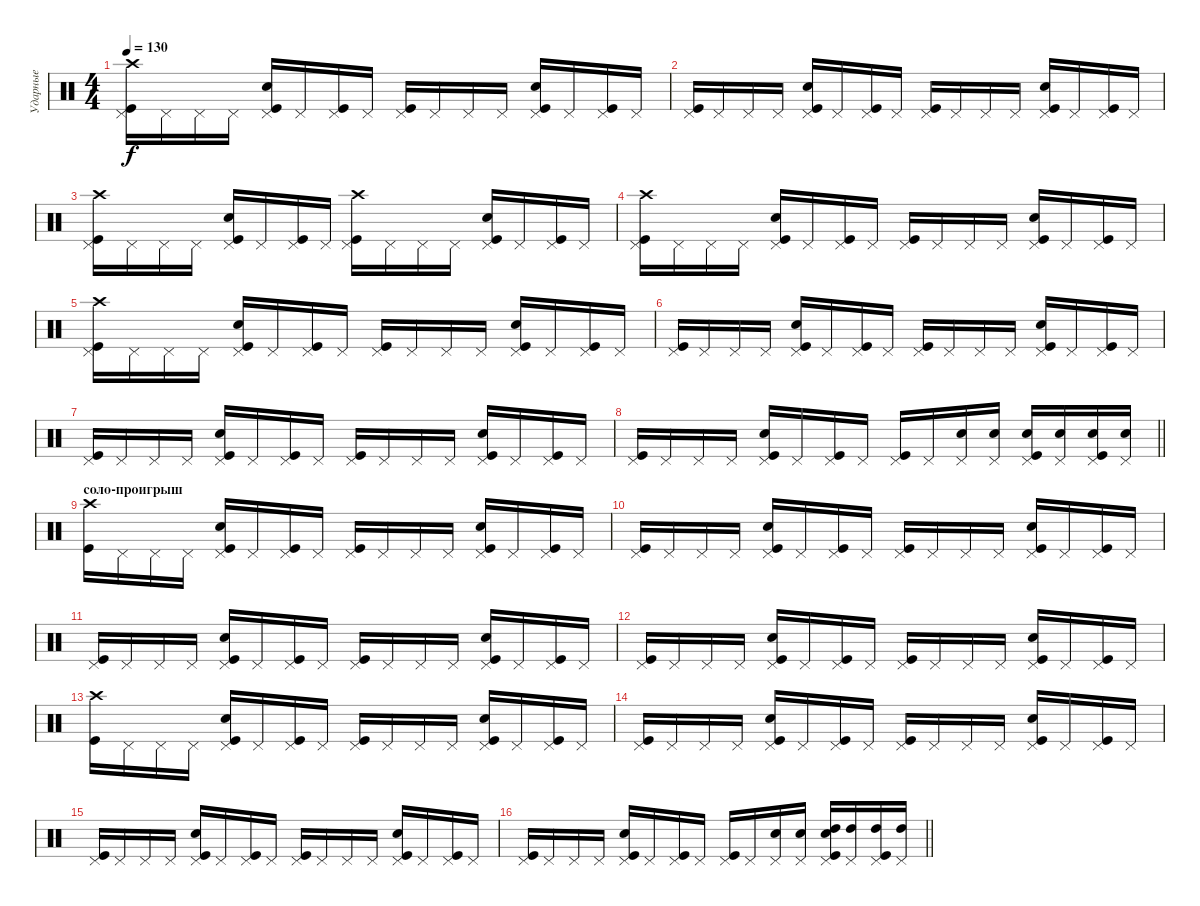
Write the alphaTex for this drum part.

\track ("Ударные" "Ударные") {instrument percussion}
\staff {score}
\articulation defaults
\ts (4 4)
\tempo 130
\clef neutral
\ks c
("Pedal Hi-Hat (hit)" "Kick (hit)" "Crash high (hit)").16{dy f} "Pedal Hi-Hat (hit)".16 "Pedal Hi-Hat (hit)".16 "Pedal Hi-Hat (hit)".16 ("Pedal Hi-Hat (hit)" "Kick (hit)" "Snare (hit) 2").16 "Pedal Hi-Hat (hit)".16 ("Pedal Hi-Hat (hit)" "Kick (hit)").16 "Pedal Hi-Hat (hit)".16 ("Pedal Hi-Hat (hit)" "Kick (hit)").16 "Pedal Hi-Hat (hit)".16 "Pedal Hi-Hat (hit)".16 "Pedal Hi-Hat (hit)".16 ("Pedal Hi-Hat (hit)" "Kick (hit)" "Snare (hit) 2").16 "Pedal Hi-Hat (hit)".16 ("Pedal Hi-Hat (hit)" "Kick (hit)").16 "Pedal Hi-Hat (hit)".16 |
("Pedal Hi-Hat (hit)" "Kick (hit)").16 "Pedal Hi-Hat (hit)".16 "Pedal Hi-Hat (hit)".16 "Pedal Hi-Hat (hit)".16 ("Pedal Hi-Hat (hit)" "Kick (hit)" "Snare (hit) 2").16 "Pedal Hi-Hat (hit)".16 ("Pedal Hi-Hat (hit)" "Kick (hit)").16 "Pedal Hi-Hat (hit)".16 ("Pedal Hi-Hat (hit)" "Kick (hit)").16 "Pedal Hi-Hat (hit)".16 "Pedal Hi-Hat (hit)".16 "Pedal Hi-Hat (hit)".16 ("Pedal Hi-Hat (hit)" "Kick (hit)" "Snare (hit) 2").16 "Pedal Hi-Hat (hit)".16 ("Pedal Hi-Hat (hit)" "Kick (hit)").16 "Pedal Hi-Hat (hit)".16 |
("Pedal Hi-Hat (hit)" "Kick (hit)" "Crash high (hit)").16 "Pedal Hi-Hat (hit)".16 "Pedal Hi-Hat (hit)".16 "Pedal Hi-Hat (hit)".16 ("Pedal Hi-Hat (hit)" "Kick (hit)" "Snare (hit) 2").16 "Pedal Hi-Hat (hit)".16 ("Pedal Hi-Hat (hit)" "Kick (hit)").16 "Pedal Hi-Hat (hit)".16 ("Pedal Hi-Hat (hit)" "Kick (hit)" "Crash high (hit)").16 "Pedal Hi-Hat (hit)".16 "Pedal Hi-Hat (hit)".16 "Pedal Hi-Hat (hit)".16 ("Pedal Hi-Hat (hit)" "Kick (hit)" "Snare (hit) 2").16 "Pedal Hi-Hat (hit)".16 ("Pedal Hi-Hat (hit)" "Kick (hit)").16 "Pedal Hi-Hat (hit)".16 |
("Pedal Hi-Hat (hit)" "Kick (hit)" "Crash high (hit)").16 "Pedal Hi-Hat (hit)".16 "Pedal Hi-Hat (hit)".16 "Pedal Hi-Hat (hit)".16 ("Pedal Hi-Hat (hit)" "Kick (hit)" "Snare (hit) 2").16 "Pedal Hi-Hat (hit)".16 ("Pedal Hi-Hat (hit)" "Kick (hit)").16 "Pedal Hi-Hat (hit)".16 ("Pedal Hi-Hat (hit)" "Kick (hit)").16 "Pedal Hi-Hat (hit)".16 "Pedal Hi-Hat (hit)".16 "Pedal Hi-Hat (hit)".16 ("Pedal Hi-Hat (hit)" "Kick (hit)" "Snare (hit) 2").16 "Pedal Hi-Hat (hit)".16 ("Pedal Hi-Hat (hit)" "Kick (hit)").16 "Pedal Hi-Hat (hit)".16 |
("Pedal Hi-Hat (hit)" "Kick (hit)" "Crash high (hit)").16 "Pedal Hi-Hat (hit)".16 "Pedal Hi-Hat (hit)".16 "Pedal Hi-Hat (hit)".16 ("Pedal Hi-Hat (hit)" "Kick (hit)" "Snare (hit) 2").16 "Pedal Hi-Hat (hit)".16 ("Pedal Hi-Hat (hit)" "Kick (hit)").16 "Pedal Hi-Hat (hit)".16 ("Pedal Hi-Hat (hit)" "Kick (hit)").16 "Pedal Hi-Hat (hit)".16 "Pedal Hi-Hat (hit)".16 "Pedal Hi-Hat (hit)".16 ("Pedal Hi-Hat (hit)" "Kick (hit)" "Snare (hit) 2").16 "Pedal Hi-Hat (hit)".16 ("Pedal Hi-Hat (hit)" "Kick (hit)").16 "Pedal Hi-Hat (hit)".16 |
("Pedal Hi-Hat (hit)" "Kick (hit)").16 "Pedal Hi-Hat (hit)".16 "Pedal Hi-Hat (hit)".16 "Pedal Hi-Hat (hit)".16 ("Pedal Hi-Hat (hit)" "Kick (hit)" "Snare (hit) 2").16 "Pedal Hi-Hat (hit)".16 ("Pedal Hi-Hat (hit)" "Kick (hit)").16 "Pedal Hi-Hat (hit)".16 ("Pedal Hi-Hat (hit)" "Kick (hit)").16 "Pedal Hi-Hat (hit)".16 "Pedal Hi-Hat (hit)".16 "Pedal Hi-Hat (hit)".16 ("Pedal Hi-Hat (hit)" "Kick (hit)" "Snare (hit) 2").16 "Pedal Hi-Hat (hit)".16 ("Pedal Hi-Hat (hit)" "Kick (hit)").16 "Pedal Hi-Hat (hit)".16 |
("Pedal Hi-Hat (hit)" "Kick (hit)").16 "Pedal Hi-Hat (hit)".16 "Pedal Hi-Hat (hit)".16 "Pedal Hi-Hat (hit)".16 ("Pedal Hi-Hat (hit)" "Kick (hit)" "Snare (hit) 2").16 "Pedal Hi-Hat (hit)".16 ("Pedal Hi-Hat (hit)" "Kick (hit)").16 "Pedal Hi-Hat (hit)".16 ("Pedal Hi-Hat (hit)" "Kick (hit)").16 "Pedal Hi-Hat (hit)".16 "Pedal Hi-Hat (hit)".16 "Pedal Hi-Hat (hit)".16 ("Pedal Hi-Hat (hit)" "Kick (hit)" "Snare (hit) 2").16 "Pedal Hi-Hat (hit)".16 ("Pedal Hi-Hat (hit)" "Kick (hit)").16 "Pedal Hi-Hat (hit)".16 |
\barLineRight lightlight
("Pedal Hi-Hat (hit)" "Kick (hit)").16 "Pedal Hi-Hat (hit)".16 "Pedal Hi-Hat (hit)".16 "Pedal Hi-Hat (hit)".16 ("Pedal Hi-Hat (hit)" "Kick (hit)" "Snare (hit) 2").16 "Pedal Hi-Hat (hit)".16 ("Pedal Hi-Hat (hit)" "Kick (hit)").16 "Pedal Hi-Hat (hit)".16 ("Pedal Hi-Hat (hit)" "Kick (hit)").16 "Pedal Hi-Hat (hit)".16 ("Pedal Hi-Hat (hit)" "Snare (hit) 2").16 ("Pedal Hi-Hat (hit)" "Snare (hit) 2").16 ("Pedal Hi-Hat (hit)" "Kick (hit)" "Snare (hit) 2").16 ("Pedal Hi-Hat (hit)" "Snare (hit) 2").16 ("Pedal Hi-Hat (hit)" "Kick (hit)" "Snare (hit) 2").16 ("Pedal Hi-Hat (hit)" "Snare (hit) 2").16 |
\section ("" "соло-проигрыш")
("Crash high (hit)" "Kick (hit)").16 "Pedal Hi-Hat (hit)".16 "Pedal Hi-Hat (hit)".16 "Pedal Hi-Hat (hit)".16 ("Pedal Hi-Hat (hit)" "Kick (hit)" "Snare (hit) 2").16 "Pedal Hi-Hat (hit)".16 ("Pedal Hi-Hat (hit)" "Kick (hit)").16 "Pedal Hi-Hat (hit)".16 ("Pedal Hi-Hat (hit)" "Kick (hit)").16 "Pedal Hi-Hat (hit)".16 "Pedal Hi-Hat (hit)".16 "Pedal Hi-Hat (hit)".16 ("Pedal Hi-Hat (hit)" "Kick (hit)" "Snare (hit) 2").16 "Pedal Hi-Hat (hit)".16 ("Pedal Hi-Hat (hit)" "Kick (hit)").16 "Pedal Hi-Hat (hit)".16 |
("Pedal Hi-Hat (hit)" "Kick (hit)").16 "Pedal Hi-Hat (hit)".16 "Pedal Hi-Hat (hit)".16 "Pedal Hi-Hat (hit)".16 ("Pedal Hi-Hat (hit)" "Kick (hit)" "Snare (hit) 2").16 "Pedal Hi-Hat (hit)".16 ("Pedal Hi-Hat (hit)" "Kick (hit)").16 "Pedal Hi-Hat (hit)".16 ("Pedal Hi-Hat (hit)" "Kick (hit)").16 "Pedal Hi-Hat (hit)".16 "Pedal Hi-Hat (hit)".16 "Pedal Hi-Hat (hit)".16 ("Pedal Hi-Hat (hit)" "Kick (hit)" "Snare (hit) 2").16 "Pedal Hi-Hat (hit)".16 ("Pedal Hi-Hat (hit)" "Kick (hit)").16 "Pedal Hi-Hat (hit)".16 |
("Pedal Hi-Hat (hit)" "Kick (hit)").16 "Pedal Hi-Hat (hit)".16 "Pedal Hi-Hat (hit)".16 "Pedal Hi-Hat (hit)".16 ("Pedal Hi-Hat (hit)" "Kick (hit)" "Snare (hit) 2").16 "Pedal Hi-Hat (hit)".16 ("Pedal Hi-Hat (hit)" "Kick (hit)").16 "Pedal Hi-Hat (hit)".16 ("Pedal Hi-Hat (hit)" "Kick (hit)").16 "Pedal Hi-Hat (hit)".16 "Pedal Hi-Hat (hit)".16 "Pedal Hi-Hat (hit)".16 ("Pedal Hi-Hat (hit)" "Kick (hit)" "Snare (hit) 2").16 "Pedal Hi-Hat (hit)".16 ("Pedal Hi-Hat (hit)" "Kick (hit)").16 "Pedal Hi-Hat (hit)".16 |
("Pedal Hi-Hat (hit)" "Kick (hit)").16 "Pedal Hi-Hat (hit)".16 "Pedal Hi-Hat (hit)".16 "Pedal Hi-Hat (hit)".16 ("Pedal Hi-Hat (hit)" "Kick (hit)" "Snare (hit) 2").16 "Pedal Hi-Hat (hit)".16 ("Pedal Hi-Hat (hit)" "Kick (hit)").16 "Pedal Hi-Hat (hit)".16 ("Pedal Hi-Hat (hit)" "Kick (hit)").16 "Pedal Hi-Hat (hit)".16 "Pedal Hi-Hat (hit)".16 "Pedal Hi-Hat (hit)".16 ("Pedal Hi-Hat (hit)" "Kick (hit)" "Snare (hit) 2").16 "Pedal Hi-Hat (hit)".16 ("Pedal Hi-Hat (hit)" "Kick (hit)").16 "Pedal Hi-Hat (hit)".16 |
("Crash high (hit)" "Kick (hit)").16 "Pedal Hi-Hat (hit)".16 "Pedal Hi-Hat (hit)".16 "Pedal Hi-Hat (hit)".16 ("Pedal Hi-Hat (hit)" "Kick (hit)" "Snare (hit) 2").16 "Pedal Hi-Hat (hit)".16 ("Pedal Hi-Hat (hit)" "Kick (hit)").16 "Pedal Hi-Hat (hit)".16 ("Pedal Hi-Hat (hit)" "Kick (hit)").16 "Pedal Hi-Hat (hit)".16 "Pedal Hi-Hat (hit)".16 "Pedal Hi-Hat (hit)".16 ("Pedal Hi-Hat (hit)" "Kick (hit)" "Snare (hit) 2").16 "Pedal Hi-Hat (hit)".16 ("Pedal Hi-Hat (hit)" "Kick (hit)").16 "Pedal Hi-Hat (hit)".16 |
("Pedal Hi-Hat (hit)" "Kick (hit)").16 "Pedal Hi-Hat (hit)".16 "Pedal Hi-Hat (hit)".16 "Pedal Hi-Hat (hit)".16 ("Pedal Hi-Hat (hit)" "Kick (hit)" "Snare (hit) 2").16 "Pedal Hi-Hat (hit)".16 ("Pedal Hi-Hat (hit)" "Kick (hit)").16 "Pedal Hi-Hat (hit)".16 ("Pedal Hi-Hat (hit)" "Kick (hit)").16 "Pedal Hi-Hat (hit)".16 "Pedal Hi-Hat (hit)".16 "Pedal Hi-Hat (hit)".16 ("Pedal Hi-Hat (hit)" "Kick (hit)" "Snare (hit) 2").16 "Pedal Hi-Hat (hit)".16 ("Pedal Hi-Hat (hit)" "Kick (hit)").16 "Pedal Hi-Hat (hit)".16 |
("Pedal Hi-Hat (hit)" "Kick (hit)").16 "Pedal Hi-Hat (hit)".16 "Pedal Hi-Hat (hit)".16 "Pedal Hi-Hat (hit)".16 ("Pedal Hi-Hat (hit)" "Kick (hit)" "Snare (hit) 2").16 "Pedal Hi-Hat (hit)".16 ("Pedal Hi-Hat (hit)" "Kick (hit)").16 "Pedal Hi-Hat (hit)".16 ("Pedal Hi-Hat (hit)" "Kick (hit)").16 "Pedal Hi-Hat (hit)".16 "Pedal Hi-Hat (hit)".16 "Pedal Hi-Hat (hit)".16 ("Pedal Hi-Hat (hit)" "Kick (hit)" "Snare (hit) 2").16 "Pedal Hi-Hat (hit)".16 ("Pedal Hi-Hat (hit)" "Kick (hit)").16 "Pedal Hi-Hat (hit)".16 |
\barLineRight lightlight
("Pedal Hi-Hat (hit)" "Kick (hit)").16 "Pedal Hi-Hat (hit)".16 "Pedal Hi-Hat (hit)".16 "Pedal Hi-Hat (hit)".16 ("Pedal Hi-Hat (hit)" "Kick (hit)" "Snare (hit) 2").16 "Pedal Hi-Hat (hit)".16 ("Pedal Hi-Hat (hit)" "Kick (hit)").16 "Pedal Hi-Hat (hit)".16 ("Pedal Hi-Hat (hit)" "Kick (hit)").16 "Pedal Hi-Hat (hit)".16 ("Pedal Hi-Hat (hit)" "Snare (hit) 2").16 ("Pedal Hi-Hat (hit)" "Snare (hit) 2").16 ("Pedal Hi-Hat (hit)" "Kick (hit)" "Snare (hit) 2" "High Tom (hit)").16 ("Pedal Hi-Hat (hit)" "High Tom (hit)").16 ("Pedal Hi-Hat (hit)" "Kick (hit)" "High Tom (hit)").16 ("Pedal Hi-Hat (hit)" "High Tom (hit)").16
